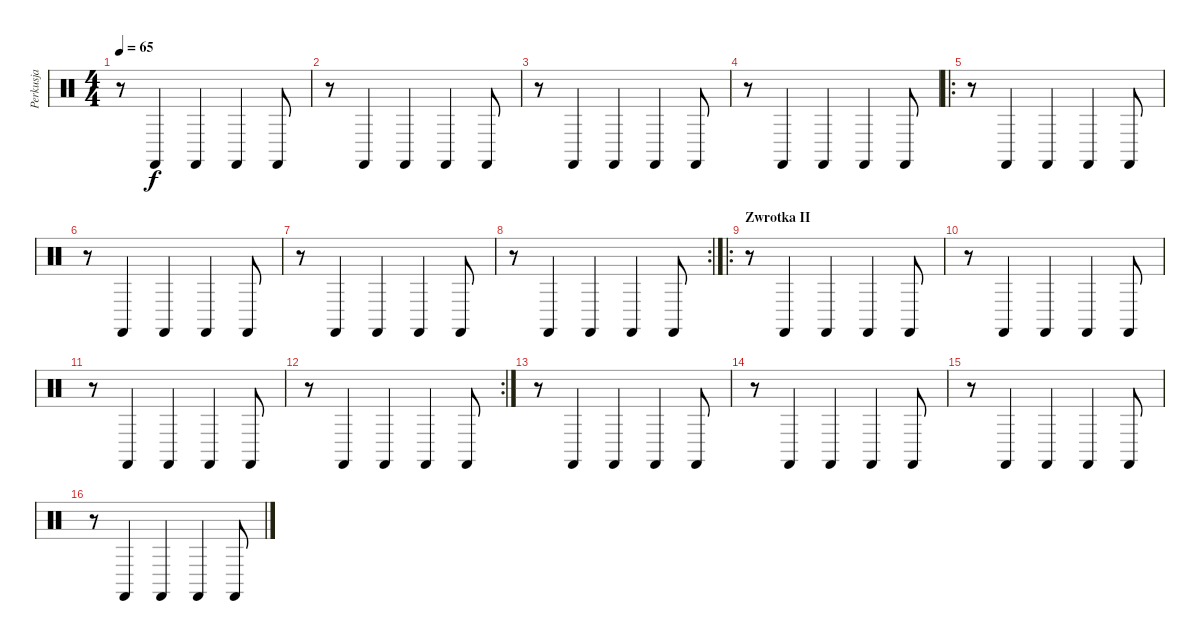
\track ("Perkusja" "Perkusja") {instrument percussion}
\staff {score}
\articulation defaults
\ts (4 4)
\tempo 65
\clef neutral
\ks c
r.8{dy f} "Castanets (hit)".4 "Castanets (hit)".4 "Castanets (hit)".4 "Castanets (hit)".8 |
r.8 "Castanets (hit)".4 "Castanets (hit)".4 "Castanets (hit)".4 "Castanets (hit)".8 |
r.8 "Castanets (hit)".4 "Castanets (hit)".4 "Castanets (hit)".4 "Castanets (hit)".8 |
r.8 "Castanets (hit)".4 "Castanets (hit)".4 "Castanets (hit)".4 "Castanets (hit)".8 |
\ro
r.8 "Castanets (hit)".4 "Castanets (hit)".4 "Castanets (hit)".4 "Castanets (hit)".8 |
r.8 "Castanets (hit)".4 "Castanets (hit)".4 "Castanets (hit)".4 "Castanets (hit)".8 |
r.8 "Castanets (hit)".4 "Castanets (hit)".4 "Castanets (hit)".4 "Castanets (hit)".8 |
\rc 2
r.8 "Castanets (hit)".4 "Castanets (hit)".4 "Castanets (hit)".4 "Castanets (hit)".8 |
\ro
\section ("" "Zwrotka II")
r.8 "Castanets (hit)".4 "Castanets (hit)".4 "Castanets (hit)".4 "Castanets (hit)".8 |
r.8 "Castanets (hit)".4 "Castanets (hit)".4 "Castanets (hit)".4 "Castanets (hit)".8 |
r.8 "Castanets (hit)".4 "Castanets (hit)".4 "Castanets (hit)".4 "Castanets (hit)".8 |
\rc 2
r.8 "Castanets (hit)".4 "Castanets (hit)".4 "Castanets (hit)".4 "Castanets (hit)".8 |
r.8 "Castanets (hit)".4 "Castanets (hit)".4 "Castanets (hit)".4 "Castanets (hit)".8 |
r.8 "Castanets (hit)".4 "Castanets (hit)".4 "Castanets (hit)".4 "Castanets (hit)".8 |
r.8 "Castanets (hit)".4 "Castanets (hit)".4 "Castanets (hit)".4 "Castanets (hit)".8 |
r.8 "Castanets (hit)".4 "Castanets (hit)".4 "Castanets (hit)".4 "Castanets (hit)".8
